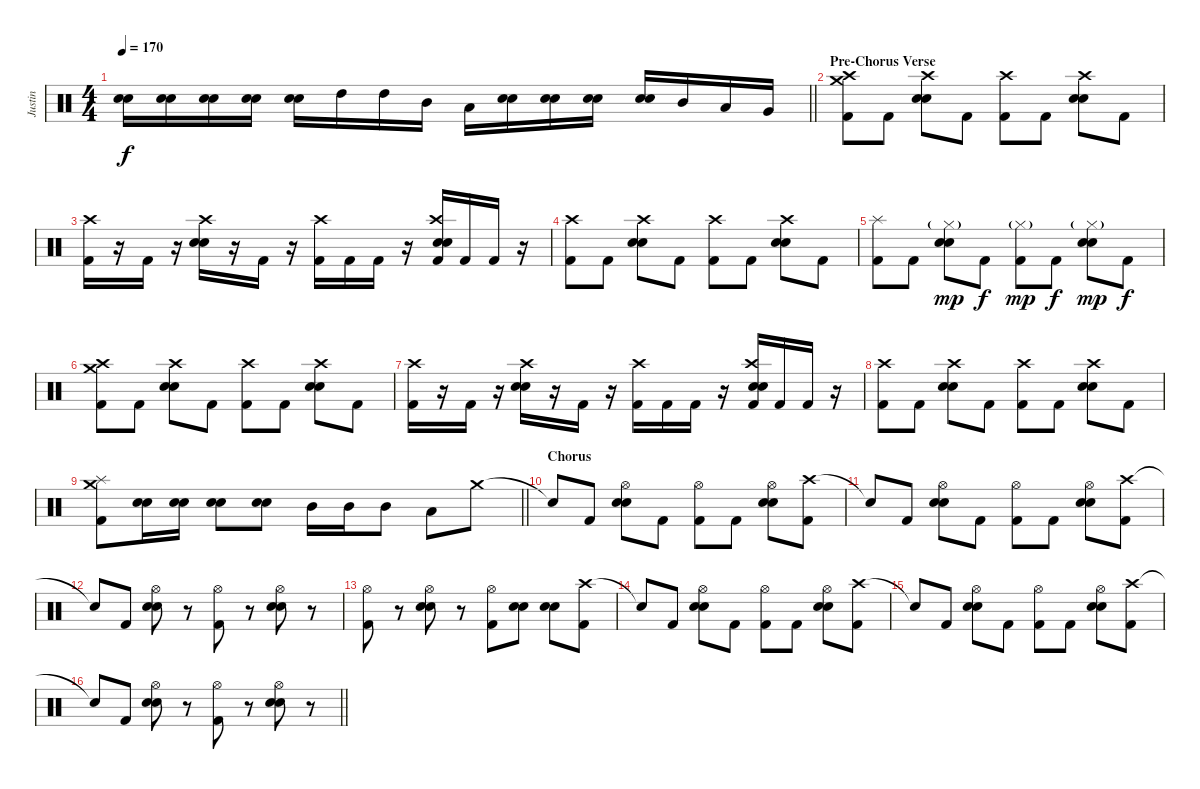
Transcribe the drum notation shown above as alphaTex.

\track ("Justin" "Justin") {instrument percussion}
\staff {score}
\articulation defaults
\ts (4 4)
\tempo 170
\clef neutral
\barLineRight lightlight
\ks c
("Electric Snare (hit)" "Snare (hit) 2").16{dy f} ("Electric Snare (hit)" "Snare (hit) 2").16 ("Electric Snare (hit)" "Snare (hit) 2").16 ("Electric Snare (hit)" "Snare (hit) 2").16 ("Electric Snare (hit)" "Snare (hit) 2").16 "High Tom (hit)".16 "High Tom (hit)".16 "Mid Tom (hit)".16 "Low Tom (hit)".16 ("Electric Snare (hit)" "Snare (hit) 2").16 ("Electric Snare (hit)" "Snare (hit) 2").16 ("Electric Snare (hit)" "Snare (hit) 2").16 ("Electric Snare (hit)" "Snare (hit) 2").16 "Mid Tom (hit)".16 "Low Tom (hit)".16 "Very Low Tom (hit)".16 |
\section ("" "Pre-Chorus Verse")
("Crash high (hit)" "Crash medium (hit)" "Kick (hit) 2").8 "Kick (hit) 2".8 ("Crash high (hit)" "Electric Snare (hit)" "Snare (hit) 2").8 "Kick (hit) 2".8 ("Crash high (hit)" "Kick (hit) 2").8 "Kick (hit) 2".8 ("Crash high (hit)" "Electric Snare (hit)" "Snare (hit) 2").8 "Kick (hit) 2".8 |
("Crash high (hit)" "Kick (hit) 2").16 r.16 "Kick (hit) 2".16 r.16 ("Crash high (hit)" "Electric Snare (hit)" "Snare (hit) 2").16 r.16 "Kick (hit) 2".16 r.16 ("Crash high (hit)" "Kick (hit) 2").16 "Kick (hit) 2".16 "Kick (hit) 2".16 r.16 ("Crash high (hit)" "Electric Snare (hit)" "Snare (hit) 2" "Kick (hit) 2").16 "Kick (hit) 2".16 "Kick (hit) 2".16 r.16 |
("Crash high (hit)" "Kick (hit) 2").8 "Kick (hit) 2".8 ("Crash high (hit)" "Electric Snare (hit)" "Snare (hit) 2").8 "Kick (hit) 2".8 ("Crash high (hit)" "Kick (hit) 2").8 "Kick (hit) 2".8 ("Crash high (hit)" "Electric Snare (hit)" "Snare (hit) 2").8 "Kick (hit) 2".8 |
("Splash (hit)" "Kick (hit) 2").8 "Kick (hit) 2".8 ("Hi-Hat (closed)"{g} "Electric Snare (hit)" "Snare (hit) 2").8{dy mp} "Kick (hit) 2".8{dy f} ("Hi-Hat (closed)"{g} "Kick (hit) 2").8{dy mp} "Kick (hit) 2".8{dy f} ("Hi-Hat (closed)"{g} "Electric Snare (hit)" "Snare (hit) 2").8{dy mp} "Kick (hit) 2".8{dy f} |
("Crash high (hit)" "Crash medium (hit)" "Kick (hit) 2").8 "Kick (hit) 2".8 ("Crash high (hit)" "Electric Snare (hit)" "Snare (hit) 2").8 "Kick (hit) 2".8 ("Crash high (hit)" "Kick (hit) 2").8 "Kick (hit) 2".8 ("Crash high (hit)" "Electric Snare (hit)" "Snare (hit) 2").8 "Kick (hit) 2".8 |
("Crash high (hit)" "Kick (hit) 2").16 r.16 "Kick (hit) 2".16 r.16 ("Crash high (hit)" "Electric Snare (hit)" "Snare (hit) 2").16 r.16 "Kick (hit) 2".16 r.16 ("Crash high (hit)" "Kick (hit) 2").16 "Kick (hit) 2".16 "Kick (hit) 2".16 r.16 ("Crash high (hit)" "Electric Snare (hit)" "Snare (hit) 2" "Kick (hit) 2").16 "Kick (hit) 2".16 "Kick (hit) 2".16 r.16 |
("Crash high (hit)" "Kick (hit) 2").8 "Kick (hit) 2".8 ("Crash high (hit)" "Electric Snare (hit)" "Snare (hit) 2").8 "Kick (hit) 2".8 ("Crash high (hit)" "Kick (hit) 2").8 "Kick (hit) 2".8 ("Crash high (hit)" "Electric Snare (hit)" "Snare (hit) 2").8 "Kick (hit) 2".8 |
\barLineRight lightlight
("Crash medium (hit)" "Splash (hit)" "Kick (hit) 2").8 ("Electric Snare (hit)" "Snare (hit) 2").16 ("Electric Snare (hit)" "Snare (hit) 2").16 ("Electric Snare (hit)" "Snare (hit) 2").8 ("Electric Snare (hit)" "Snare (hit) 2").8 "Mid Tom (hit)".16 "Mid Tom (hit)".16 "Mid Tom (hit)".8 "Low Tom (hit)".8 "Crash medium (hit)".8 |
\section ("" "Chorus")
"Snare (hit)"{t}.8 "Kick (hit) 2".8 ("Hi-Hat (open)" "Electric Snare (hit)" "Snare (hit) 2").8 "Kick (hit) 2".8 ("Hi-Hat (open)" "Kick (hit) 2").8 "Kick (hit) 2".8 ("Hi-Hat (open)" "Electric Snare (hit)" "Snare (hit) 2").8 ("Crash high (hit)" "Kick (hit) 2").8 |
"Snare (hit)"{t}.8 "Kick (hit) 2".8 ("Hi-Hat (open)" "Electric Snare (hit)" "Snare (hit) 2").8 "Kick (hit) 2".8 ("Hi-Hat (open)" "Kick (hit) 2").8 "Kick (hit) 2".8 ("Hi-Hat (open)" "Electric Snare (hit)" "Snare (hit) 2").8 ("Crash high (hit)" "Kick (hit) 2").8 |
"Snare (hit)"{t}.8 "Kick (hit) 2".8 ("Hi-Hat (open)" "Electric Snare (hit)" "Snare (hit) 2").8 r.8 ("Hi-Hat (open)" "Kick (hit) 2").8 r.8 ("Hi-Hat (open)" "Electric Snare (hit)" "Snare (hit) 2").8 r.8 |
("Hi-Hat (open)" "Kick (hit) 2").8 r.8 ("Hi-Hat (open)" "Electric Snare (hit)" "Snare (hit) 2").8 r.8 ("Hi-Hat (open)" "Kick (hit) 2").8 ("Electric Snare (hit)" "Snare (hit) 2").8 ("Electric Snare (hit)" "Snare (hit) 2").8 ("Crash high (hit)" "Kick (hit) 2").8 |
"Snare (hit)"{t}.8 "Kick (hit) 2".8 ("Hi-Hat (open)" "Electric Snare (hit)" "Snare (hit) 2").8 "Kick (hit) 2".8 ("Hi-Hat (open)" "Kick (hit) 2").8 "Kick (hit) 2".8 ("Hi-Hat (open)" "Electric Snare (hit)" "Snare (hit) 2").8 ("Crash high (hit)" "Kick (hit) 2").8 |
"Snare (hit)"{t}.8 "Kick (hit) 2".8 ("Hi-Hat (open)" "Electric Snare (hit)" "Snare (hit) 2").8 "Kick (hit) 2".8 ("Hi-Hat (open)" "Kick (hit) 2").8 "Kick (hit) 2".8 ("Hi-Hat (open)" "Electric Snare (hit)" "Snare (hit) 2").8 ("Crash high (hit)" "Kick (hit) 2").8 |
\barLineRight lightlight "Snare (hit)"{t}.8 "Kick (hit) 2".8
("Hi-Hat (open)" "Electric Snare (hit)" "Snare (hit) 2").8 r.8 ("Hi-Hat (open)" "Kick (hit) 2").8 r.8 ("Hi-Hat (open)" "Electric Snare (hit)" "Snare (hit) 2").8 r.8
